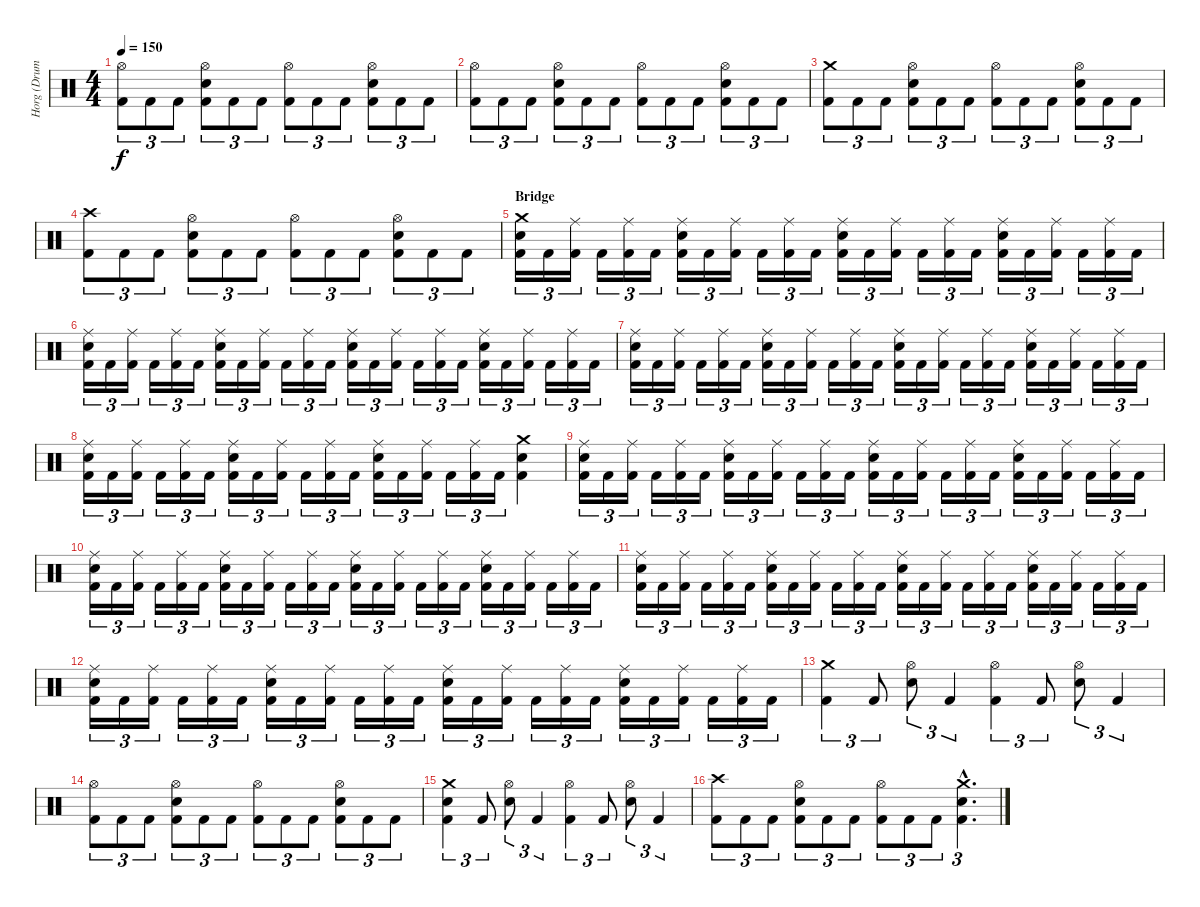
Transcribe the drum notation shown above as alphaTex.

\track ("Horg (Drums)" "Horg (Drum") {instrument percussion}
\staff {score}
\articulation defaults
\ts (4 4)
\tempo 150
\clef neutral
\ks c
("Hi-Hat (open)" "Kick (hit) 2").8{tu (3 2) dy f} "Kick (hit) 2".8{tu (3 2)} "Kick (hit) 2".8{tu (3 2)} ("Hi-Hat (open)" "Electric Snare (hit)" "Kick (hit) 2").8{tu (3 2)} "Kick (hit) 2".8{tu (3 2)} "Kick (hit) 2".8{tu (3 2)} ("Hi-Hat (open)" "Kick (hit) 2").8{tu (3 2)} "Kick (hit) 2".8{tu (3 2)} "Kick (hit) 2".8{tu (3 2)} ("Hi-Hat (open)" "Electric Snare (hit)" "Kick (hit) 2").8{tu (3 2)} "Kick (hit) 2".8{tu (3 2)} "Kick (hit) 2".8{tu (3 2)} |
("Hi-Hat (open)" "Kick (hit) 2").8{tu (3 2)} "Kick (hit) 2".8{tu (3 2)} "Kick (hit) 2".8{tu (3 2)} ("Hi-Hat (open)" "Electric Snare (hit)" "Kick (hit) 2").8{tu (3 2)} "Kick (hit) 2".8{tu (3 2)} "Kick (hit) 2".8{tu (3 2)} ("Hi-Hat (open)" "Kick (hit) 2").8{tu (3 2)} "Kick (hit) 2".8{tu (3 2)} "Kick (hit) 2".8{tu (3 2)} ("Hi-Hat (open)" "Electric Snare (hit)" "Kick (hit) 2").8{tu (3 2)} "Kick (hit) 2".8{tu (3 2)} "Kick (hit) 2".8{tu (3 2)} |
("Crash medium (hit)" "Kick (hit) 2").8{tu (3 2)} "Kick (hit) 2".8{tu (3 2)} "Kick (hit) 2".8{tu (3 2)} ("Hi-Hat (open)" "Electric Snare (hit)" "Kick (hit) 2").8{tu (3 2)} "Kick (hit) 2".8{tu (3 2)} "Kick (hit) 2".8{tu (3 2)} ("Hi-Hat (open)" "Kick (hit) 2").8{tu (3 2)} "Kick (hit) 2".8{tu (3 2)} "Kick (hit) 2".8{tu (3 2)} ("Hi-Hat (open)" "Electric Snare (hit)" "Kick (hit) 2").8{tu (3 2)} "Kick (hit) 2".8{tu (3 2)} "Kick (hit) 2".8{tu (3 2)} |
("Crash high (hit)" "Kick (hit) 2").8{tu (3 2)} "Kick (hit) 2".8{tu (3 2)} "Kick (hit) 2".8{tu (3 2)} ("Hi-Hat (open)" "Electric Snare (hit)" "Kick (hit) 2").8{tu (3 2)} "Kick (hit) 2".8{tu (3 2)} "Kick (hit) 2".8{tu (3 2)} ("Hi-Hat (open)" "Kick (hit) 2").8{tu (3 2)} "Kick (hit) 2".8{tu (3 2)} "Kick (hit) 2".8{tu (3 2)} ("Hi-Hat (open)" "Electric Snare (hit)" "Kick (hit) 2").8{tu (3 2)} "Kick (hit) 2".8{tu (3 2)} "Kick (hit) 2".8{tu (3 2)} |
\section ("" "Bridge")
("Crash medium (hit)" "Electric Snare (hit)" "Kick (hit) 2").16{tu (3 2)} "Kick (hit) 2".16{tu (3 2)} ("Ride (middle)" "Kick (hit) 2").16{tu (3 2)} "Kick (hit) 2".16{tu (3 2)} ("Ride (middle)" "Kick (hit) 2").16{tu (3 2)} "Kick (hit) 2".16{tu (3 2)} ("Ride (middle)" "Electric Snare (hit)" "Kick (hit) 2").16{tu (3 2)} "Kick (hit) 2".16{tu (3 2)} ("Ride (middle)" "Kick (hit) 2").16{tu (3 2)} "Kick (hit) 2".16{tu (3 2)} ("Ride (middle)" "Kick (hit) 2").16{tu (3 2)} "Kick (hit) 2".16{tu (3 2)} ("Ride (middle)" "Electric Snare (hit)" "Kick (hit) 2").16{tu (3 2)} "Kick (hit) 2".16{tu (3 2)} ("Ride (middle)" "Kick (hit) 2").16{tu (3 2)} "Kick (hit) 2".16{tu (3 2)} ("Ride (middle)" "Kick (hit) 2").16{tu (3 2)} "Kick (hit) 2".16{tu (3 2)} ("Ride (middle)" "Electric Snare (hit)" "Kick (hit) 2").16{tu (3 2)} "Kick (hit) 2".16{tu (3 2)} ("Ride (middle)" "Kick (hit) 2").16{tu (3 2)} "Kick (hit) 2".16{tu (3 2)} ("Ride (middle)" "Kick (hit) 2").16{tu (3 2)} "Kick (hit) 2".16{tu (3 2)} |
("Ride (middle)" "Electric Snare (hit)" "Kick (hit) 2").16{tu (3 2)} "Kick (hit) 2".16{tu (3 2)} ("Ride (middle)" "Kick (hit) 2").16{tu (3 2)} "Kick (hit) 2".16{tu (3 2)} ("Ride (middle)" "Kick (hit) 2").16{tu (3 2)} "Kick (hit) 2".16{tu (3 2)} ("Ride (middle)" "Electric Snare (hit)" "Kick (hit) 2").16{tu (3 2)} "Kick (hit) 2".16{tu (3 2)} ("Ride (middle)" "Kick (hit) 2").16{tu (3 2)} "Kick (hit) 2".16{tu (3 2)} ("Ride (middle)" "Kick (hit) 2").16{tu (3 2)} "Kick (hit) 2".16{tu (3 2)} ("Ride (middle)" "Electric Snare (hit)" "Kick (hit) 2").16{tu (3 2)} "Kick (hit) 2".16{tu (3 2)} ("Ride (middle)" "Kick (hit) 2").16{tu (3 2)} "Kick (hit) 2".16{tu (3 2)} ("Ride (middle)" "Kick (hit) 2").16{tu (3 2)} "Kick (hit) 2".16{tu (3 2)} ("Ride (middle)" "Electric Snare (hit)" "Kick (hit) 2").16{tu (3 2)} "Kick (hit) 2".16{tu (3 2)} ("Ride (middle)" "Kick (hit) 2").16{tu (3 2)} "Kick (hit) 2".16{tu (3 2)} ("Ride (middle)" "Kick (hit) 2").16{tu (3 2)} "Kick (hit) 2".16{tu (3 2)} |
("Ride (middle)" "Electric Snare (hit)" "Kick (hit) 2").16{tu (3 2)} "Kick (hit) 2".16{tu (3 2)} ("Ride (middle)" "Kick (hit) 2").16{tu (3 2)} "Kick (hit) 2".16{tu (3 2)} ("Ride (middle)" "Kick (hit) 2").16{tu (3 2)} "Kick (hit) 2".16{tu (3 2)} ("Ride (middle)" "Electric Snare (hit)" "Kick (hit) 2").16{tu (3 2)} "Kick (hit) 2".16{tu (3 2)} ("Ride (middle)" "Kick (hit) 2").16{tu (3 2)} "Kick (hit) 2".16{tu (3 2)} ("Ride (middle)" "Kick (hit) 2").16{tu (3 2)} "Kick (hit) 2".16{tu (3 2)} ("Ride (middle)" "Electric Snare (hit)" "Kick (hit) 2").16{tu (3 2)} "Kick (hit) 2".16{tu (3 2)} ("Ride (middle)" "Kick (hit) 2").16{tu (3 2)} "Kick (hit) 2".16{tu (3 2)} ("Ride (middle)" "Kick (hit) 2").16{tu (3 2)} "Kick (hit) 2".16{tu (3 2)} ("Ride (middle)" "Electric Snare (hit)" "Kick (hit) 2").16{tu (3 2)} "Kick (hit) 2".16{tu (3 2)} ("Ride (middle)" "Kick (hit) 2").16{tu (3 2)} "Kick (hit) 2".16{tu (3 2)} ("Ride (middle)" "Kick (hit) 2").16{tu (3 2)} "Kick (hit) 2".16{tu (3 2)} |
("Ride (middle)" "Electric Snare (hit)" "Kick (hit) 2").16{tu (3 2)} "Kick (hit) 2".16{tu (3 2)} ("Ride (middle)" "Kick (hit) 2").16{tu (3 2)} "Kick (hit) 2".16{tu (3 2)} ("Ride (middle)" "Kick (hit) 2").16{tu (3 2)} "Kick (hit) 2".16{tu (3 2)} ("Ride (middle)" "Electric Snare (hit)" "Kick (hit) 2").16{tu (3 2)} "Kick (hit) 2".16{tu (3 2)} ("Ride (middle)" "Kick (hit) 2").16{tu (3 2)} "Kick (hit) 2".16{tu (3 2)} ("Ride (middle)" "Kick (hit) 2").16{tu (3 2)} "Kick (hit) 2".16{tu (3 2)} ("Ride (middle)" "Electric Snare (hit)" "Kick (hit) 2").16{tu (3 2)} "Kick (hit) 2".16{tu (3 2)} ("Ride (middle)" "Kick (hit) 2").16{tu (3 2)} "Kick (hit) 2".16{tu (3 2)} ("Ride (middle)" "Kick (hit) 2").16{tu (3 2)} "Kick (hit) 2".16{tu (3 2)} ("Crash medium (hit)" "Electric Snare (hit)" "Kick (hit) 2").4 |
("Ride (middle)" "Electric Snare (hit)" "Kick (hit) 2").16{tu (3 2)} "Kick (hit) 2".16{tu (3 2)} ("Ride (middle)" "Kick (hit) 2").16{tu (3 2)} "Kick (hit) 2".16{tu (3 2)} ("Ride (middle)" "Kick (hit) 2").16{tu (3 2)} "Kick (hit) 2".16{tu (3 2)} ("Ride (middle)" "Electric Snare (hit)" "Kick (hit) 2").16{tu (3 2)} "Kick (hit) 2".16{tu (3 2)} ("Ride (middle)" "Kick (hit) 2").16{tu (3 2)} "Kick (hit) 2".16{tu (3 2)} ("Ride (middle)" "Kick (hit) 2").16{tu (3 2)} "Kick (hit) 2".16{tu (3 2)} ("Ride (middle)" "Electric Snare (hit)" "Kick (hit) 2").16{tu (3 2)} "Kick (hit) 2".16{tu (3 2)} ("Ride (middle)" "Kick (hit) 2").16{tu (3 2)} "Kick (hit) 2".16{tu (3 2)} ("Ride (middle)" "Kick (hit) 2").16{tu (3 2)} "Kick (hit) 2".16{tu (3 2)} ("Ride (middle)" "Electric Snare (hit)" "Kick (hit) 2").16{tu (3 2)} "Kick (hit) 2".16{tu (3 2)} ("Ride (middle)" "Kick (hit) 2").16{tu (3 2)} "Kick (hit) 2".16{tu (3 2)} ("Ride (middle)" "Kick (hit) 2").16{tu (3 2)} "Kick (hit) 2".16{tu (3 2)} |
("Ride (middle)" "Electric Snare (hit)" "Kick (hit) 2").16{tu (3 2)} "Kick (hit) 2".16{tu (3 2)} ("Ride (middle)" "Kick (hit) 2").16{tu (3 2)} "Kick (hit) 2".16{tu (3 2)} ("Ride (middle)" "Kick (hit) 2").16{tu (3 2)} "Kick (hit) 2".16{tu (3 2)} ("Ride (middle)" "Electric Snare (hit)" "Kick (hit) 2").16{tu (3 2)} "Kick (hit) 2".16{tu (3 2)} ("Ride (middle)" "Kick (hit) 2").16{tu (3 2)} "Kick (hit) 2".16{tu (3 2)} ("Ride (middle)" "Kick (hit) 2").16{tu (3 2)} "Kick (hit) 2".16{tu (3 2)} ("Ride (middle)" "Electric Snare (hit)" "Kick (hit) 2").16{tu (3 2)} "Kick (hit) 2".16{tu (3 2)} ("Ride (middle)" "Kick (hit) 2").16{tu (3 2)} "Kick (hit) 2".16{tu (3 2)} ("Ride (middle)" "Kick (hit) 2").16{tu (3 2)} "Kick (hit) 2".16{tu (3 2)} ("Ride (middle)" "Electric Snare (hit)" "Kick (hit) 2").16{tu (3 2)} "Kick (hit) 2".16{tu (3 2)} ("Ride (middle)" "Kick (hit) 2").16{tu (3 2)} "Kick (hit) 2".16{tu (3 2)} ("Ride (middle)" "Kick (hit) 2").16{tu (3 2)} "Kick (hit) 2".16{tu (3 2)} |
("Ride (middle)" "Electric Snare (hit)" "Kick (hit) 2").16{tu (3 2)} "Kick (hit) 2".16{tu (3 2)} ("Ride (middle)" "Kick (hit) 2").16{tu (3 2)} "Kick (hit) 2".16{tu (3 2)} ("Ride (middle)" "Kick (hit) 2").16{tu (3 2)} "Kick (hit) 2".16{tu (3 2)} ("Ride (middle)" "Electric Snare (hit)" "Kick (hit) 2").16{tu (3 2)} "Kick (hit) 2".16{tu (3 2)} ("Ride (middle)" "Kick (hit) 2").16{tu (3 2)} "Kick (hit) 2".16{tu (3 2)} ("Ride (middle)" "Kick (hit) 2").16{tu (3 2)} "Kick (hit) 2".16{tu (3 2)} ("Ride (middle)" "Electric Snare (hit)" "Kick (hit) 2").16{tu (3 2)} "Kick (hit) 2".16{tu (3 2)} ("Ride (middle)" "Kick (hit) 2").16{tu (3 2)} "Kick (hit) 2".16{tu (3 2)} ("Ride (middle)" "Kick (hit) 2").16{tu (3 2)} "Kick (hit) 2".16{tu (3 2)} ("Ride (middle)" "Electric Snare (hit)" "Kick (hit) 2").16{tu (3 2)} "Kick (hit) 2".16{tu (3 2)} ("Ride (middle)" "Kick (hit) 2").16{tu (3 2)} "Kick (hit) 2".16{tu (3 2)} ("Ride (middle)" "Kick (hit) 2").16{tu (3 2)} "Kick (hit) 2".16{tu (3 2)} |
("Ride (middle)" "Electric Snare (hit)" "Kick (hit) 2").16{tu (3 2)} "Kick (hit) 2".16{tu (3 2)} ("Ride (middle)" "Kick (hit) 2").16{tu (3 2)} "Kick (hit) 2".16{tu (3 2)} ("Ride (middle)" "Kick (hit) 2").16{tu (3 2)} "Kick (hit) 2".16{tu (3 2)} ("Ride (middle)" "Electric Snare (hit)" "Kick (hit) 2").16{tu (3 2)} "Kick (hit) 2".16{tu (3 2)} ("Ride (middle)" "Kick (hit) 2").16{tu (3 2)} "Kick (hit) 2".16{tu (3 2)} ("Ride (middle)" "Kick (hit) 2").16{tu (3 2)} "Kick (hit) 2".16{tu (3 2)} ("Ride (middle)" "Electric Snare (hit)" "Kick (hit) 2").16{tu (3 2)} "Kick (hit) 2".16{tu (3 2)} ("Ride (middle)" "Kick (hit) 2").16{tu (3 2)} "Kick (hit) 2".16{tu (3 2)} ("Ride (middle)" "Kick (hit) 2").16{tu (3 2)} "Kick (hit) 2".16{tu (3 2)} ("Ride (middle)" "Electric Snare (hit)" "Kick (hit) 2").16{tu (3 2)} "Kick (hit) 2".16{tu (3 2)} ("Ride (middle)" "Kick (hit) 2").16{tu (3 2)} "Kick (hit) 2".16{tu (3 2)} ("Ride (middle)" "Kick (hit) 2").16{tu (3 2)} "Kick (hit) 2".16{tu (3 2)} |
("Crash medium (hit)" "Kick (hit) 2").4{tu (3 2)} "Kick (hit) 2".8{tu (3 2)} ("Hi-Hat (open)" "Electric Snare (hit)").8{tu (3 2)} "Kick (hit) 2".4{tu (3 2)} ("Hi-Hat (open)" "Kick (hit) 2").4{tu (3 2)} "Kick (hit) 2".8{tu (3 2)} ("Hi-Hat (open)" "Electric Snare (hit)").8{tu (3 2)} "Kick (hit) 2".4{tu (3 2)} |
("Hi-Hat (open)" "Kick (hit) 2").8{tu (3 2)} "Kick (hit) 2".8{tu (3 2)} "Kick (hit) 2".8{tu (3 2)} ("Hi-Hat (open)" "Electric Snare (hit)" "Kick (hit) 2").8{tu (3 2)} "Kick (hit) 2".8{tu (3 2)} "Kick (hit) 2".8{tu (3 2)} ("Hi-Hat (open)" "Kick (hit) 2").8{tu (3 2)} "Kick (hit) 2".8{tu (3 2)} "Kick (hit) 2".8{tu (3 2)} ("Hi-Hat (open)" "Electric Snare (hit)" "Kick (hit) 2").8{tu (3 2)} "Kick (hit) 2".8{tu (3 2)} "Kick (hit) 2".8{tu (3 2)} |
("Crash medium (hit)" "Electric Snare (hit)" "Kick (hit) 2").4{tu (3 2)} "Kick (hit) 2".8{tu (3 2)} ("Hi-Hat (open)" "Electric Snare (hit)").8{tu (3 2)} "Kick (hit) 2".4{tu (3 2)} ("Hi-Hat (open)" "Kick (hit) 2").4{tu (3 2)} "Kick (hit) 2".8{tu (3 2)} ("Hi-Hat (open)" "Electric Snare (hit)").8{tu (3 2)} "Kick (hit) 2".4{tu (3 2)} |
("Crash high (hit)" "Kick (hit) 2").8{tu (3 2)} "Kick (hit) 2".8{tu (3 2)} "Kick (hit) 2".8{tu (3 2)} ("Hi-Hat (open)" "Electric Snare (hit)" "Kick (hit) 2").8{tu (3 2)} "Kick (hit) 2".8{tu (3 2)} "Kick (hit) 2".8{tu (3 2)} ("Hi-Hat (open)" "Kick (hit) 2").8{tu (3 2)} "Kick (hit) 2".8{tu (3 2)} "Kick (hit) 2".8{tu (3 2)} ("Crash medium (hit)"{hac} "Electric Snare (hit)"{hac} "Kick (hit) 2"{hac}).4{d tu (3 2)}
